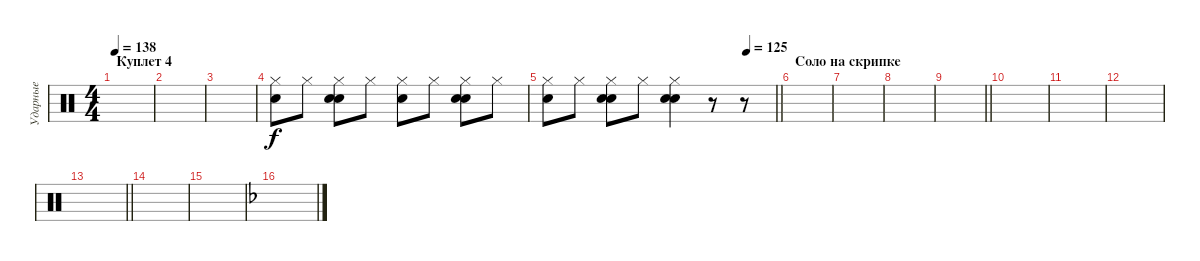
\track ("Ударные" "Ударные") {instrument percussion}
\staff {score}
\articulation defaults
\ts (4 4)
\section ("" "Куплет 4")
\tempo 138
\clef neutral
\ks c
|
|
|
("Hi-Hat (closed)" "Snare (hit) 2").8 "Hi-Hat (closed)".8 ("Hi-Hat (closed)" "Snare (hit) 2" "Electric Snare (hit)").8 "Hi-Hat (closed)".8 ("Hi-Hat (closed)" "Snare (hit) 2").8 "Hi-Hat (closed)".8 ("Hi-Hat (closed)" "Snare (hit) 2" "Electric Snare (hit)").8 "Hi-Hat (closed)".8 |
\tempo (125 0.875)
\barLineRight lightlight
("Hi-Hat (closed)" "Snare (hit) 2").8 "Hi-Hat (closed)".8 ("Hi-Hat (closed)" "Snare (hit) 2" "Electric Snare (hit)").8 "Hi-Hat (closed)".8 ("Hi-Hat (closed)" "Snare (hit) 2" "Snare (hit) 2").4 r.8 r.8 |
\section ("" "Соло на скрипке")
|
|
|
\barLineRight lightlight
|
|
|
|
\barLineRight lightlight
|
|
|
\ks f
